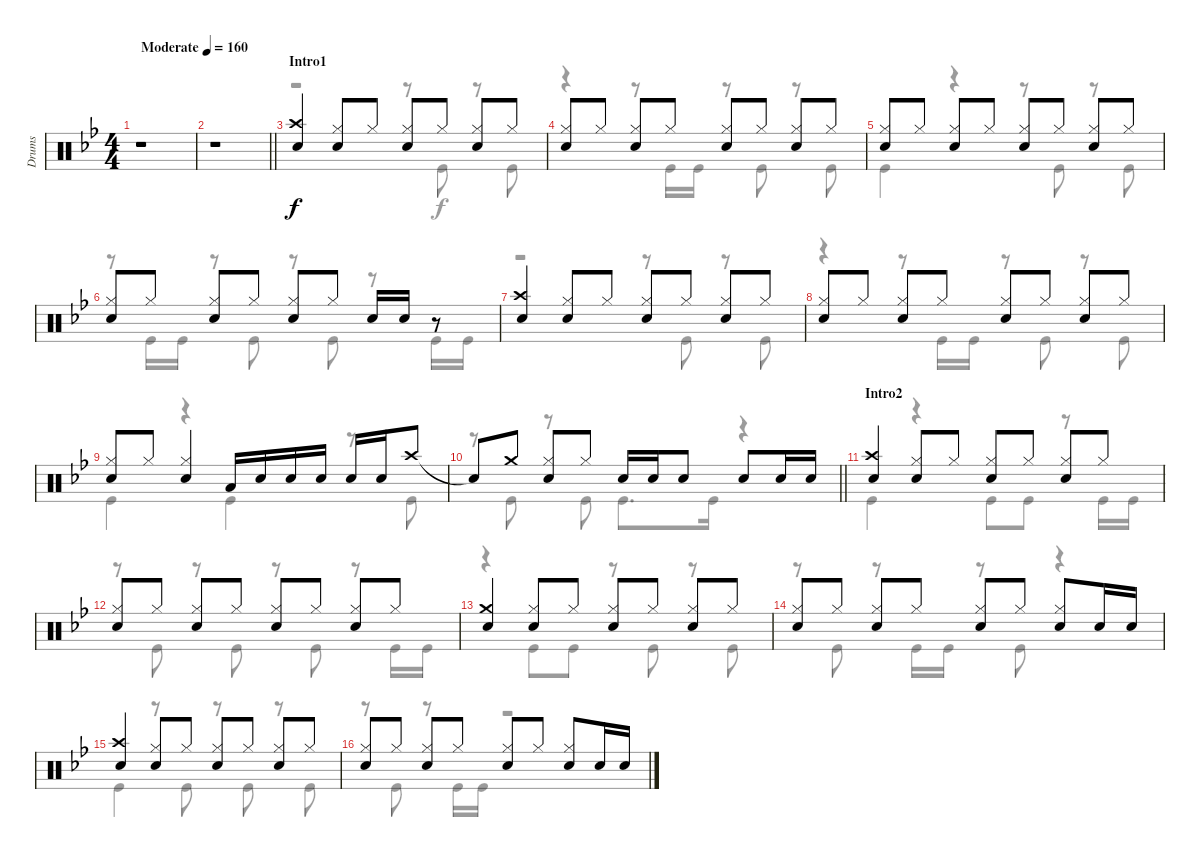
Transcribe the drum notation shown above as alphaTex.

\track ("Drums" "Drums") {instrument percussion}
\staff {score}
\articulation defaults
\voice
\ts (4 4)
\tempo (160 "Moderate")
\clef neutral
\ks bb
r.1{dy f} |
\barLineRight lightlight
r.1 |
\section ("" "Intro1")
("Crash high (hit)" "Snare (hit) 2").4 ("Hi-Hat (closed)" "Snare (hit) 2").8 "Hi-Hat (closed)".8 ("Hi-Hat (closed)" "Snare (hit) 2").8 "Hi-Hat (closed)".8 ("Hi-Hat (closed)" "Snare (hit) 2").8 "Hi-Hat (closed)".8 |
("Hi-Hat (closed)" "Snare (hit) 2").8 "Hi-Hat (closed)".8 ("Hi-Hat (closed)" "Snare (hit) 2").8 "Hi-Hat (closed)".8 ("Hi-Hat (closed)" "Snare (hit) 2").8 "Hi-Hat (closed)".8 ("Hi-Hat (closed)" "Snare (hit) 2").8 "Hi-Hat (closed)".8 |
("Hi-Hat (closed)" "Snare (hit) 2").8 "Hi-Hat (closed)".8 ("Hi-Hat (closed)" "Snare (hit) 2").8 "Hi-Hat (closed)".8 ("Hi-Hat (closed)" "Snare (hit) 2").8 "Hi-Hat (closed)".8 ("Hi-Hat (closed)" "Snare (hit) 2").8 "Hi-Hat (closed)".8 |
("Hi-Hat (closed)" "Snare (hit) 2").8 "Hi-Hat (closed)".8 ("Hi-Hat (closed)" "Snare (hit) 2").8 "Hi-Hat (closed)".8 ("Hi-Hat (closed)" "Snare (hit) 2").8 "Hi-Hat (closed)".8 "Snare (hit) 2".16 "Snare (hit) 2".16 r.8 |
("Crash high (hit)" "Snare (hit) 2").4 ("Hi-Hat (closed)" "Snare (hit) 2").8 "Hi-Hat (closed)".8 ("Hi-Hat (closed)" "Snare (hit) 2").8 "Hi-Hat (closed)".8 ("Hi-Hat (closed)" "Snare (hit) 2").8 "Hi-Hat (closed)".8 |
("Hi-Hat (closed)" "Snare (hit) 2").8 "Hi-Hat (closed)".8 ("Hi-Hat (closed)" "Snare (hit) 2").8 "Hi-Hat (closed)".8 ("Hi-Hat (closed)" "Snare (hit) 2").8 "Hi-Hat (closed)".8 ("Hi-Hat (closed)" "Snare (hit) 2").8 "Hi-Hat (closed)".8 |
("Hi-Hat (closed)" "Snare (hit) 2").8 "Hi-Hat (closed)".8 ("Hi-Hat (closed)" "Snare (hit) 2").4 "Low Tom (hit)".16 "Snare (hit) 2".16 "Snare (hit) 2".16 "Snare (hit) 2".16 "Snare (hit) 2".16 "Snare (hit) 2".16 "Crash high (hit)".8 |
\barLineRight lightlight "Snare (hit)"{t}.8 "Crash medium (hit)".8
("Hi-Hat (closed)" "Snare (hit) 2").8 "Hi-Hat (closed)".8 "Snare (hit) 2".16 "Snare (hit) 2".16 "Snare (hit) 2".8 "Snare (hit) 2".8 "Snare (hit) 2".16 "Snare (hit) 2".16 |
\section ("" "Intro2")
("Crash high (hit)" "Snare (hit) 2").4 ("Hi-Hat (closed)" "Snare (hit) 2").8 "Hi-Hat (closed)".8 ("Hi-Hat (closed)" "Snare (hit) 2").8 "Hi-Hat (closed)".8 ("Hi-Hat (closed)" "Snare (hit) 2").8 "Hi-Hat (closed)".8 |
("Hi-Hat (closed)" "Snare (hit) 2").8 "Hi-Hat (closed)".8 ("Hi-Hat (closed)" "Snare (hit) 2").8 "Hi-Hat (closed)".8 ("Hi-Hat (closed)" "Snare (hit) 2").8 "Hi-Hat (closed)".8 ("Hi-Hat (closed)" "Snare (hit) 2").8 "Hi-Hat (closed)".8 |
("Crash medium (hit)" "Snare (hit) 2").4 ("Hi-Hat (closed)" "Snare (hit) 2").8 "Hi-Hat (closed)".8 ("Hi-Hat (closed)" "Snare (hit) 2").8 "Hi-Hat (closed)".8 ("Hi-Hat (closed)" "Snare (hit) 2").8 "Hi-Hat (closed)".8 |
("Hi-Hat (closed)" "Snare (hit) 2").8 "Hi-Hat (closed)".8 ("Hi-Hat (closed)" "Snare (hit) 2").8 "Hi-Hat (closed)".8 ("Hi-Hat (closed)" "Snare (hit) 2").8 "Hi-Hat (closed)".8 ("Hi-Hat (closed)" "Snare (hit) 2").8 "Snare (hit) 2".16 "Snare (hit) 2".16 |
("Crash high (hit)" "Snare (hit) 2").4 ("Hi-Hat (closed)" "Snare (hit) 2").8 "Hi-Hat (closed)".8 ("Hi-Hat (closed)" "Snare (hit) 2").8 "Hi-Hat (closed)".8 ("Hi-Hat (closed)" "Snare (hit) 2").8 "Hi-Hat (closed)".8 |
("Hi-Hat (closed)" "Snare (hit) 2").8 "Hi-Hat (closed)".8 ("Hi-Hat (closed)" "Snare (hit) 2").8 "Hi-Hat (closed)".8 ("Hi-Hat (closed)" "Snare (hit) 2").8 "Hi-Hat (closed)".8 ("Hi-Hat (closed)" "Snare (hit) 2").8 "Snare (hit) 2".16 "Snare (hit) 2".16
\voice
\clef neutral
\ottava regular
\simile none
\ks bb
r.1{dy f} |
\barLineRight lightlight
r.1 |
r.2 r.8 "Kick (hit)".8 r.8 "Kick (hit)".8 |
r.4 r.8 "Kick (hit)".16 "Kick (hit)".16 r.8 "Kick (hit)".8 r.8 "Kick (hit)".8 |
"Kick (hit)".4 r.4 r.8 "Kick (hit)".8 r.8 "Kick (hit)".8 |
r.8 "Kick (hit)".16 "Kick (hit)".16 r.8 "Kick (hit)".8 r.8 "Kick (hit)".8 r.8 "Kick (hit)".16 "Kick (hit)".16 |
r.2 r.8 "Kick (hit)".8 r.8 "Kick (hit)".8 |
r.4 r.8 "Kick (hit)".16 "Kick (hit)".16 r.8 "Kick (hit)".8 r.8 "Kick (hit)".8 |
"Kick (hit)".4 r.4 "Kick (hit)".4 r.8 "Kick (hit)".8 |
\barLineRight lightlight
r.8 "Kick (hit)".8 r.8 "Kick (hit)".8 "Kick (hit)".8{d} "Kick (hit)".16 r.4 |
"Kick (hit)".4 r.4 "Kick (hit)".8 "Kick (hit)".8 r.8 "Kick (hit)".16 "Kick (hit)".16 |
r.8 "Kick (hit)".8 r.8 "Kick (hit)".8 r.8 "Kick (hit)".8 r.8 "Kick (hit)".16 "Kick (hit)".16 |
r.4 "Kick (hit)".8 "Kick (hit)".8 r.8 "Kick (hit)".8 r.8 "Kick (hit)".8 |
r.8 "Kick (hit)".8 r.8 "Kick (hit)".16 "Kick (hit)".16 r.8 "Kick (hit)".8 r.4 |
"Kick (hit)".4 r.8 "Kick (hit)".8 r.8 "Kick (hit)".8 r.8 "Kick (hit)".8 |
r.8 "Kick (hit)".8 r.8 "Kick (hit)".16 "Kick (hit)".16 r.2
